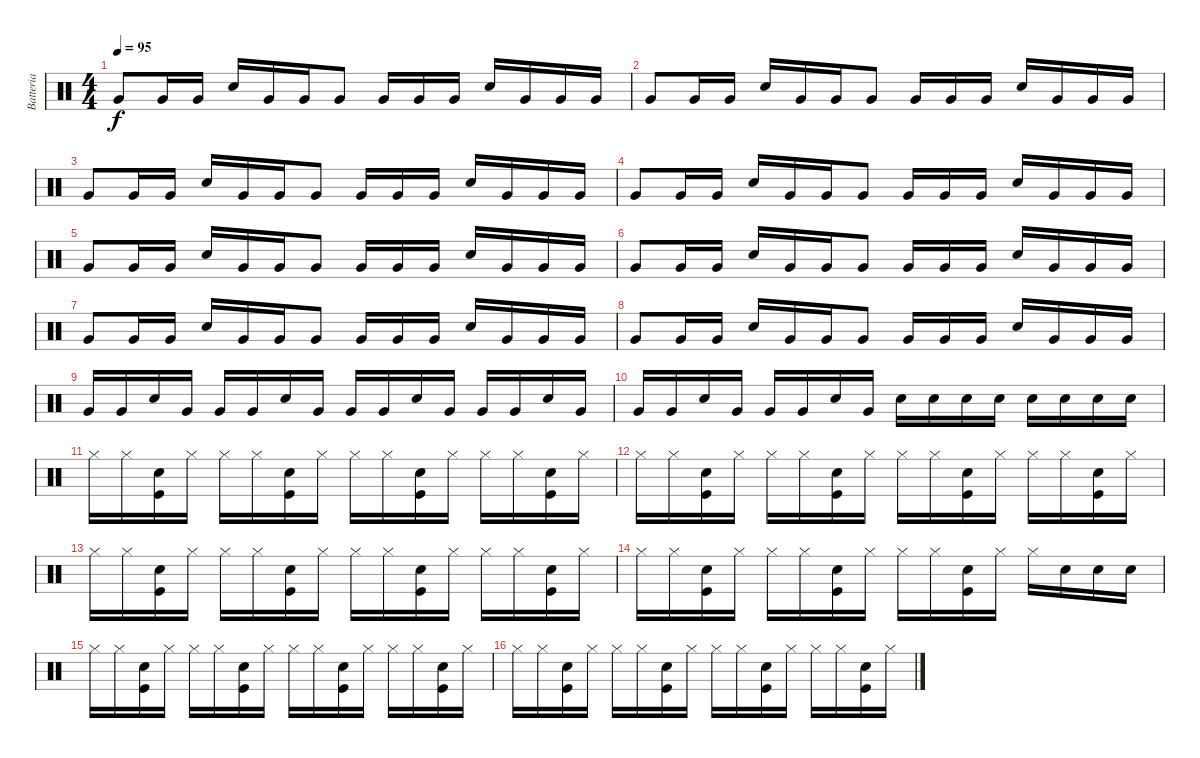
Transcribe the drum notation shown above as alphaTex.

\track ("Batteria" "Batteria") {instrument percussion}
\staff {score}
\articulation defaults
\ts (4 4)
\tempo 95
\clef neutral
\ks c "Very Low Tom (hit)".8{dy f} "Very Low Tom (hit)".16 "Very Low Tom (hit)".16 "Electric Snare (hit)".16 "Very Low Tom (hit)".16 "Very Low Tom (hit)".16 "Very Low Tom (hit)".8 "Very Low Tom (hit)".16 "Very Low Tom (hit)".16 "Very Low Tom (hit)".16 "Electric Snare (hit)".16 "Very Low Tom (hit)".16 "Very Low Tom (hit)".16 "Very Low Tom (hit)".16
|
"Very Low Tom (hit)".8 "Very Low Tom (hit)".16 "Very Low Tom (hit)".16 "Electric Snare (hit)".16 "Very Low Tom (hit)".16 "Very Low Tom (hit)".16 "Very Low Tom (hit)".8 "Very Low Tom (hit)".16 "Very Low Tom (hit)".16 "Very Low Tom (hit)".16 "Electric Snare (hit)".16 "Very Low Tom (hit)".16 "Very Low Tom (hit)".16 "Very Low Tom (hit)".16 |
"Very Low Tom (hit)".8 "Very Low Tom (hit)".16 "Very Low Tom (hit)".16 "Electric Snare (hit)".16 "Very Low Tom (hit)".16 "Very Low Tom (hit)".16 "Very Low Tom (hit)".8 "Very Low Tom (hit)".16 "Very Low Tom (hit)".16 "Very Low Tom (hit)".16 "Electric Snare (hit)".16 "Very Low Tom (hit)".16 "Very Low Tom (hit)".16 "Very Low Tom (hit)".16 |
"Very Low Tom (hit)".8 "Very Low Tom (hit)".16 "Very Low Tom (hit)".16 "Electric Snare (hit)".16 "Very Low Tom (hit)".16 "Very Low Tom (hit)".16 "Very Low Tom (hit)".8 "Very Low Tom (hit)".16 "Very Low Tom (hit)".16 "Very Low Tom (hit)".16 "Electric Snare (hit)".16 "Very Low Tom (hit)".16 "Very Low Tom (hit)".16 "Very Low Tom (hit)".16 |
"Very Low Tom (hit)".8 "Very Low Tom (hit)".16 "Very Low Tom (hit)".16 "Electric Snare (hit)".16 "Very Low Tom (hit)".16 "Very Low Tom (hit)".16 "Very Low Tom (hit)".8 "Very Low Tom (hit)".16 "Very Low Tom (hit)".16 "Very Low Tom (hit)".16 "Electric Snare (hit)".16 "Very Low Tom (hit)".16 "Very Low Tom (hit)".16 "Very Low Tom (hit)".16 |
"Very Low Tom (hit)".8 "Very Low Tom (hit)".16 "Very Low Tom (hit)".16 "Electric Snare (hit)".16 "Very Low Tom (hit)".16 "Very Low Tom (hit)".16 "Very Low Tom (hit)".8 "Very Low Tom (hit)".16 "Very Low Tom (hit)".16 "Very Low Tom (hit)".16 "Electric Snare (hit)".16 "Very Low Tom (hit)".16 "Very Low Tom (hit)".16 "Very Low Tom (hit)".16 |
"Very Low Tom (hit)".8 "Very Low Tom (hit)".16 "Very Low Tom (hit)".16 "Electric Snare (hit)".16 "Very Low Tom (hit)".16 "Very Low Tom (hit)".16 "Very Low Tom (hit)".8 "Very Low Tom (hit)".16 "Very Low Tom (hit)".16 "Very Low Tom (hit)".16 "Electric Snare (hit)".16 "Very Low Tom (hit)".16 "Very Low Tom (hit)".16 "Very Low Tom (hit)".16 |
"Very Low Tom (hit)".8 "Very Low Tom (hit)".16 "Very Low Tom (hit)".16 "Electric Snare (hit)".16 "Very Low Tom (hit)".16 "Very Low Tom (hit)".16 "Very Low Tom (hit)".8 "Very Low Tom (hit)".16 "Very Low Tom (hit)".16 "Very Low Tom (hit)".16 "Electric Snare (hit)".16 "Very Low Tom (hit)".16 "Very Low Tom (hit)".16 "Very Low Tom (hit)".16 |
"Very Low Tom (hit)".16 "Very Low Tom (hit)".16 "Electric Snare (hit)".16 "Very Low Tom (hit)".16 "Very Low Tom (hit)".16 "Very Low Tom (hit)".16 "Electric Snare (hit)".16 "Very Low Tom (hit)".16 "Very Low Tom (hit)".16 "Very Low Tom (hit)".16 "Electric Snare (hit)".16 "Very Low Tom (hit)".16 "Very Low Tom (hit)".16 "Very Low Tom (hit)".16 "Electric Snare (hit)".16 "Very Low Tom (hit)".16 |
"Very Low Tom (hit)".16 "Very Low Tom (hit)".16 "Electric Snare (hit)".16 "Very Low Tom (hit)".16 "Very Low Tom (hit)".16 "Very Low Tom (hit)".16 "Electric Snare (hit)".16 "Very Low Tom (hit)".16 "Electric Snare (hit)".16 "Electric Snare (hit)".16 "Electric Snare (hit)".16 "Electric Snare (hit)".16 "Electric Snare (hit)".16 "Electric Snare (hit)".16 "Electric Snare (hit)".16 "Electric Snare (hit)".16 |
"Hi-Hat (closed)".16 "Hi-Hat (closed)".16 ("Electric Snare (hit)" "Kick (hit)").16 "Hi-Hat (closed)".16 "Hi-Hat (closed)".16 "Hi-Hat (closed)".16 ("Electric Snare (hit)" "Kick (hit)").16 "Hi-Hat (closed)".16 "Hi-Hat (closed)".16 "Hi-Hat (closed)".16 ("Electric Snare (hit)" "Kick (hit)").16 "Hi-Hat (closed)".16 "Hi-Hat (closed)".16 "Hi-Hat (closed)".16 ("Electric Snare (hit)" "Kick (hit)").16 "Hi-Hat (closed)".16 |
"Hi-Hat (closed)".16 "Hi-Hat (closed)".16 ("Electric Snare (hit)" "Kick (hit)").16 "Hi-Hat (closed)".16 "Hi-Hat (closed)".16 "Hi-Hat (closed)".16 ("Electric Snare (hit)" "Kick (hit)").16 "Hi-Hat (closed)".16 "Hi-Hat (closed)".16 "Hi-Hat (closed)".16 ("Electric Snare (hit)" "Kick (hit)").16 "Hi-Hat (closed)".16 "Hi-Hat (closed)".16 "Hi-Hat (closed)".16 ("Electric Snare (hit)" "Kick (hit)").16 "Hi-Hat (closed)".16 |
"Hi-Hat (closed)".16 "Hi-Hat (closed)".16 ("Electric Snare (hit)" "Kick (hit)").16 "Hi-Hat (closed)".16 "Hi-Hat (closed)".16 "Hi-Hat (closed)".16 ("Electric Snare (hit)" "Kick (hit)").16 "Hi-Hat (closed)".16 "Hi-Hat (closed)".16 "Hi-Hat (closed)".16 ("Electric Snare (hit)" "Kick (hit)").16 "Hi-Hat (closed)".16 "Hi-Hat (closed)".16 "Hi-Hat (closed)".16 ("Electric Snare (hit)" "Kick (hit)").16 "Hi-Hat (closed)".16 |
"Hi-Hat (closed)".16 "Hi-Hat (closed)".16 ("Electric Snare (hit)" "Kick (hit)").16 "Hi-Hat (closed)".16 "Hi-Hat (closed)".16 "Hi-Hat (closed)".16 ("Electric Snare (hit)" "Kick (hit)").16 "Hi-Hat (closed)".16 "Hi-Hat (closed)".16 "Hi-Hat (closed)".16 ("Electric Snare (hit)" "Kick (hit)").16 "Hi-Hat (closed)".16 "Hi-Hat (closed)".16 "Electric Snare (hit)".16 "Electric Snare (hit)".16 "Electric Snare (hit)".16 |
"Hi-Hat (closed)".16 "Hi-Hat (closed)".16 ("Electric Snare (hit)" "Kick (hit)").16 "Hi-Hat (closed)".16 "Hi-Hat (closed)".16 "Hi-Hat (closed)".16 ("Electric Snare (hit)" "Kick (hit)").16 "Hi-Hat (closed)".16 "Hi-Hat (closed)".16 "Hi-Hat (closed)".16 ("Electric Snare (hit)" "Kick (hit)").16 "Hi-Hat (closed)".16 "Hi-Hat (closed)".16 "Hi-Hat (closed)".16 ("Electric Snare (hit)" "Kick (hit)").16 "Hi-Hat (closed)".16 |
"Hi-Hat (closed)".16 "Hi-Hat (closed)".16 ("Electric Snare (hit)" "Kick (hit)").16 "Hi-Hat (closed)".16 "Hi-Hat (closed)".16 "Hi-Hat (closed)".16 ("Electric Snare (hit)" "Kick (hit)").16 "Hi-Hat (closed)".16 "Hi-Hat (closed)".16 "Hi-Hat (closed)".16 ("Electric Snare (hit)" "Kick (hit)").16 "Hi-Hat (closed)".16 "Hi-Hat (closed)".16 "Hi-Hat (closed)".16 ("Electric Snare (hit)" "Kick (hit)").16 "Hi-Hat (closed)".16
